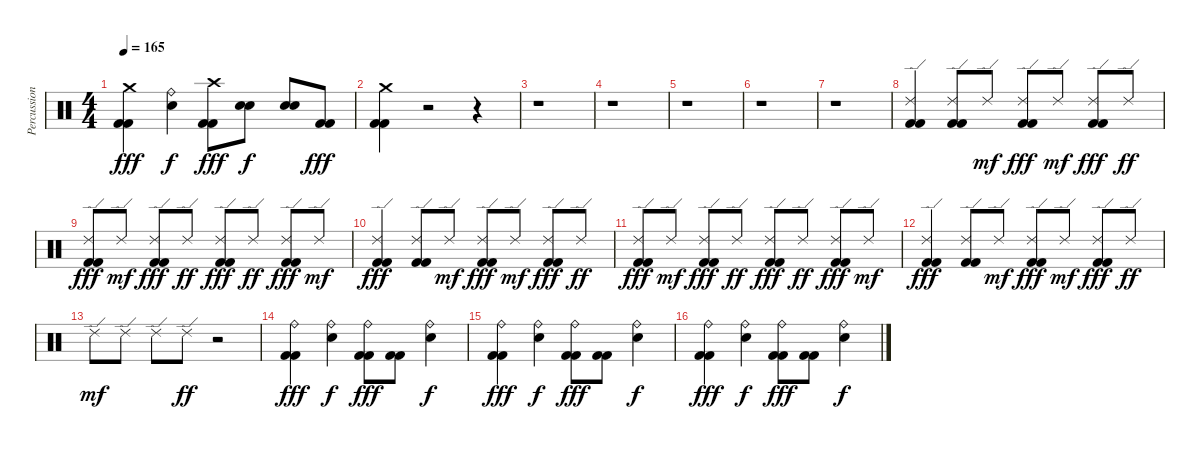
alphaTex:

\track ("Percussions" "Percussion") {instrument percussion}
\staff {score}
\articulation defaults
\ts (4 4)
\tempo 165
\clef neutral
\ks c
("Crash medium (hit)" "Kick (hit) 2" "Kick (hit) 2").4{dy fff} ("Ride (bell)" "Electric Snare (hit)").4{dy f} ("Crash high (hit)" "Kick (hit) 2" "Kick (hit) 2").8{dy fff} ("Electric Snare (hit)" "Electric Snare (hit)").8{dy f} ("Electric Snare (hit)" "Electric Snare (hit)").8 ("Kick (hit) 2" "Kick (hit) 2").8{dy fff} |
("Crash medium (hit)" "Kick (hit) 2" "Kick (hit) 2").4 r.2 r.4 |
r.1 |
r.1 |
r.1 |
r.1 |
r.1 |
("Ride (edge) 2" "Kick (hit) 2" "Kick (hit) 2").4{volume 13} ("Ride (edge) 2" "Kick (hit) 2" "Kick (hit) 2").8 "Ride (edge) 2".8{dy mf} ("Ride (edge) 2" "Kick (hit) 2" "Kick (hit) 2").8{dy fff} "Ride (edge) 2".8{dy mf} ("Ride (edge) 2" "Kick (hit) 2" "Kick (hit) 2").8{dy fff} "Ride (edge) 2".8{dy ff} |
("Ride (edge) 2" "Kick (hit) 2" "Kick (hit) 2").8{dy fff} "Ride (edge) 2".8{dy mf} ("Ride (edge) 2" "Kick (hit) 2" "Kick (hit) 2").8{dy fff} "Ride (edge) 2".8{dy ff} ("Ride (edge) 2" "Kick (hit) 2" "Kick (hit) 2").8{dy fff} "Ride (edge) 2".8{dy ff} ("Ride (edge) 2" "Kick (hit) 2" "Kick (hit) 2").8{dy fff} "Ride (edge) 2".8{dy mf} |
("Ride (edge) 2" "Kick (hit) 2" "Kick (hit) 2").4{dy fff} ("Ride (edge) 2" "Kick (hit) 2" "Kick (hit) 2").8 "Ride (edge) 2".8{dy mf} ("Ride (edge) 2" "Kick (hit) 2" "Kick (hit) 2").8{dy fff} "Ride (edge) 2".8{dy mf} ("Ride (edge) 2" "Kick (hit) 2" "Kick (hit) 2").8{dy fff} "Ride (edge) 2".8{dy ff} |
("Ride (edge) 2" "Kick (hit) 2" "Kick (hit) 2").8{dy fff} "Ride (edge) 2".8{dy mf} ("Ride (edge) 2" "Kick (hit) 2" "Kick (hit) 2").8{dy fff} "Ride (edge) 2".8{dy ff} ("Ride (edge) 2" "Kick (hit) 2" "Kick (hit) 2").8{dy fff} "Ride (edge) 2".8{dy ff} ("Ride (edge) 2" "Kick (hit) 2" "Kick (hit) 2").8{dy fff} "Ride (edge) 2".8{dy mf} |
("Ride (edge) 2" "Kick (hit) 2" "Kick (hit) 2").4{dy fff} ("Ride (edge) 2" "Kick (hit) 2" "Kick (hit) 2").8 "Ride (edge) 2".8{dy mf} ("Ride (edge) 2" "Kick (hit) 2" "Kick (hit) 2").8{dy fff} "Ride (edge) 2".8{dy mf} ("Ride (edge) 2" "Kick (hit) 2" "Kick (hit) 2").8{dy fff} "Ride (edge) 2".8{dy ff} |
"Ride (edge) 2".8{dy mf} "Ride (edge) 2".8 "Ride (edge) 2".8 "Ride (edge) 2".8{dy ff} r.2 |
("Ride (bell)" "Kick (hit) 2" "Kick (hit) 2").4{dy fff volume 16} ("Ride (bell)" "Electric Snare (hit)").4{dy f} ("Ride (bell)" "Kick (hit) 2" "Kick (hit) 2").8{dy fff} ("Kick (hit) 2" "Kick (hit) 2").8 ("Ride (bell)" "Electric Snare (hit)").4{dy f} |
("Ride (bell)" "Kick (hit) 2" "Kick (hit) 2").4{dy fff} ("Ride (bell)" "Electric Snare (hit)").4{dy f} ("Ride (bell)" "Kick (hit) 2" "Kick (hit) 2").8{dy fff} ("Kick (hit) 2" "Kick (hit) 2").8 ("Ride (bell)" "Electric Snare (hit)").4{dy f} |
("Ride (bell)" "Kick (hit) 2" "Kick (hit) 2").4{dy fff} ("Ride (bell)" "Electric Snare (hit)").4{dy f} ("Ride (bell)" "Kick (hit) 2" "Kick (hit) 2").8{dy fff} ("Kick (hit) 2" "Kick (hit) 2").8 ("Ride (bell)" "Electric Snare (hit)").4{dy f}
